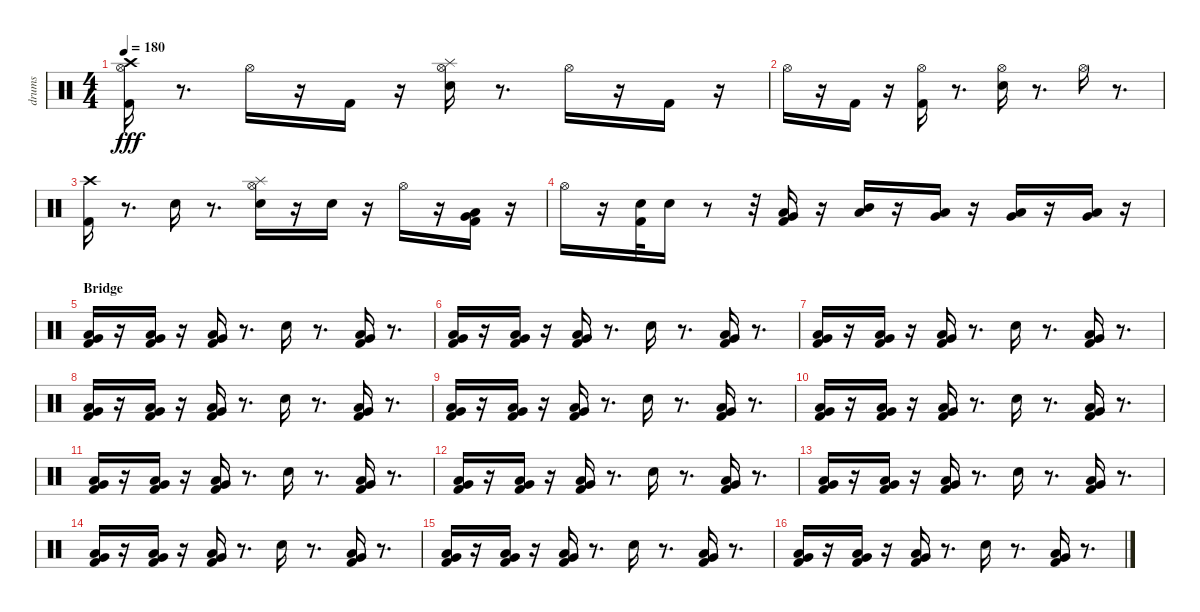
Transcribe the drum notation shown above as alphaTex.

\track ("drums" "drums") {instrument percussion}
\staff {score}
\articulation defaults
\ts (4 4)
\tempo 180
\clef neutral
\ks c
("Crash high (hit)" "Kick (hit) 2" "Hi-Hat (open)").16{dy fff} r.8{d} "Hi-Hat (open)".16 r.16 "Kick (hit) 2".16 r.16 ("Splash (hit)" "Electric Snare (hit)" "Hi-Hat (open)").16 r.8{d} "Hi-Hat (open)".16 r.16 "Kick (hit) 2".16 r.16 |
"Hi-Hat (open)".16 r.16 "Kick (hit) 2".16 r.16 ("Hi-Hat (open)" "Kick (hit) 2").16 r.8{d} ("Hi-Hat (open)" "Electric Snare (hit)").16 r.8{d} "Hi-Hat (open)".16 r.8{d} |
("Crash high (hit)" "Kick (hit) 2").16 r.8{d} "Electric Snare (hit)".16 r.8{d} ("Splash (hit)" "Hi-Hat (open)" "Electric Snare (hit)").16 r.16 "Electric Snare (hit)".16 r.16 "Hi-Hat (open)".16 r.16 ("Very Low Tom (hit)" "Low Floor Tom (hit)" "Kick (hit) 2").16 r.16 |
"Hi-Hat (open)".16 r.16 ("Electric Snare (hit)" "Kick (hit) 2").32 "Electric Snare (hit)".16 r.8 r.32 ("Low Tom (hit)" "Very Low Tom (hit)" "Kick (hit) 2").16 r.16 ("Low Tom (hit)" "Mid Tom (hit)").16 r.16 ("Very Low Tom (hit)" "Low Tom (hit)").16 r.16 ("Low Tom (hit)" "Very Low Tom (hit)").16 r.16 ("Very Low Tom (hit)" "Low Floor Tom (hit)").16 r.16 |
\section ("" "Bridge")
("Low Floor Tom (hit)" "Very Low Tom (hit)" "Kick (hit) 2").16 r.16 ("Very Low Tom (hit)" "Low Tom (hit)" "Kick (hit) 2").16 r.16 ("Low Floor Tom (hit)" "Very Low Tom (hit)" "Kick (hit) 2").16 r.8{d} "Electric Snare (hit)".16 r.8{d} ("Very Low Tom (hit)" "Low Floor Tom (hit)" "Kick (hit) 2").16 r.8{d} |
("Kick (hit) 2" "Low Floor Tom (hit)" "Very Low Tom (hit)").16 r.16 ("Kick (hit) 2" "Very Low Tom (hit)" "Low Tom (hit)").16 r.16 ("Kick (hit) 2" "Low Floor Tom (hit)" "Very Low Tom (hit)").16 r.8{d} "Electric Snare (hit)".16 r.8{d} ("Kick (hit) 2" "Very Low Tom (hit)" "Low Floor Tom (hit)").16 r.8{d} |
("Very Low Tom (hit)" "Low Floor Tom (hit)" "Kick (hit) 2").16 r.16 ("Low Tom (hit)" "Very Low Tom (hit)" "Kick (hit) 2").16 r.16 ("Low Floor Tom (hit)" "Very Low Tom (hit)" "Kick (hit) 2").16 r.8{d} "Electric Snare (hit)".16 r.8{d} ("Kick (hit) 2" "Very Low Tom (hit)" "Low Floor Tom (hit)").16 r.8{d} |
("Kick (hit) 2" "Low Floor Tom (hit)" "Very Low Tom (hit)").16 r.16 ("Kick (hit) 2" "Very Low Tom (hit)" "Low Tom (hit)").16 r.16 ("Kick (hit) 2" "Low Floor Tom (hit)" "Very Low Tom (hit)").16 r.8{d} "Electric Snare (hit)".16 r.8{d} ("Kick (hit) 2" "Very Low Tom (hit)" "Low Floor Tom (hit)").16 r.8{d} |
("Very Low Tom (hit)" "Low Floor Tom (hit)" "Kick (hit) 2").16 r.16 ("Low Tom (hit)" "Very Low Tom (hit)" "Kick (hit) 2").16 r.16 ("Low Floor Tom (hit)" "Very Low Tom (hit)" "Kick (hit) 2").16 r.8{d} "Electric Snare (hit)".16 r.8{d} ("Kick (hit) 2" "Very Low Tom (hit)" "Low Floor Tom (hit)").16 r.8{d} |
("Kick (hit) 2" "Low Floor Tom (hit)" "Very Low Tom (hit)").16 r.16 ("Kick (hit) 2" "Very Low Tom (hit)" "Low Tom (hit)").16 r.16 ("Kick (hit) 2" "Low Floor Tom (hit)" "Very Low Tom (hit)").16 r.8{d} "Electric Snare (hit)".16 r.8{d} ("Kick (hit) 2" "Very Low Tom (hit)" "Low Floor Tom (hit)").16 r.8{d} |
("Very Low Tom (hit)" "Low Floor Tom (hit)" "Kick (hit) 2").16 r.16 ("Low Tom (hit)" "Very Low Tom (hit)" "Kick (hit) 2").16 r.16 ("Low Floor Tom (hit)" "Very Low Tom (hit)" "Kick (hit) 2").16 r.8{d} "Electric Snare (hit)".16 r.8{d} ("Kick (hit) 2" "Very Low Tom (hit)" "Low Floor Tom (hit)").16 r.8{d} |
("Kick (hit) 2" "Low Floor Tom (hit)" "Very Low Tom (hit)").16 r.16 ("Kick (hit) 2" "Very Low Tom (hit)" "Low Tom (hit)").16 r.16 ("Kick (hit) 2" "Low Floor Tom (hit)" "Very Low Tom (hit)").16 r.8{d} "Electric Snare (hit)".16 r.8{d} ("Kick (hit) 2" "Very Low Tom (hit)" "Low Floor Tom (hit)").16 r.8{d} |
("Very Low Tom (hit)" "Low Floor Tom (hit)" "Kick (hit) 2").16 r.16 ("Low Tom (hit)" "Very Low Tom (hit)" "Kick (hit) 2").16 r.16 ("Low Floor Tom (hit)" "Very Low Tom (hit)" "Kick (hit) 2").16 r.8{d} "Electric Snare (hit)".16 r.8{d} ("Kick (hit) 2" "Very Low Tom (hit)" "Low Floor Tom (hit)").16 r.8{d} |
("Kick (hit) 2" "Low Floor Tom (hit)" "Very Low Tom (hit)").16 r.16 ("Kick (hit) 2" "Very Low Tom (hit)" "Low Tom (hit)").16 r.16 ("Kick (hit) 2" "Low Floor Tom (hit)" "Very Low Tom (hit)").16 r.8{d} "Electric Snare (hit)".16 r.8{d} ("Kick (hit) 2" "Very Low Tom (hit)" "Low Floor Tom (hit)").16 r.8{d} |
("Very Low Tom (hit)" "Low Floor Tom (hit)" "Kick (hit) 2").16 r.16 ("Low Tom (hit)" "Very Low Tom (hit)" "Kick (hit) 2").16 r.16 ("Low Floor Tom (hit)" "Very Low Tom (hit)" "Kick (hit) 2").16 r.8{d} "Electric Snare (hit)".16 r.8{d} ("Kick (hit) 2" "Very Low Tom (hit)" "Low Floor Tom (hit)").16 r.8{d} |
("Kick (hit) 2" "Low Floor Tom (hit)" "Very Low Tom (hit)").16 r.16 ("Kick (hit) 2" "Very Low Tom (hit)" "Low Tom (hit)").16 r.16 ("Kick (hit) 2" "Low Floor Tom (hit)" "Very Low Tom (hit)").16 r.8{d} "Electric Snare (hit)".16 r.8{d} ("Kick (hit) 2" "Very Low Tom (hit)" "Low Floor Tom (hit)").16 r.8{d}
